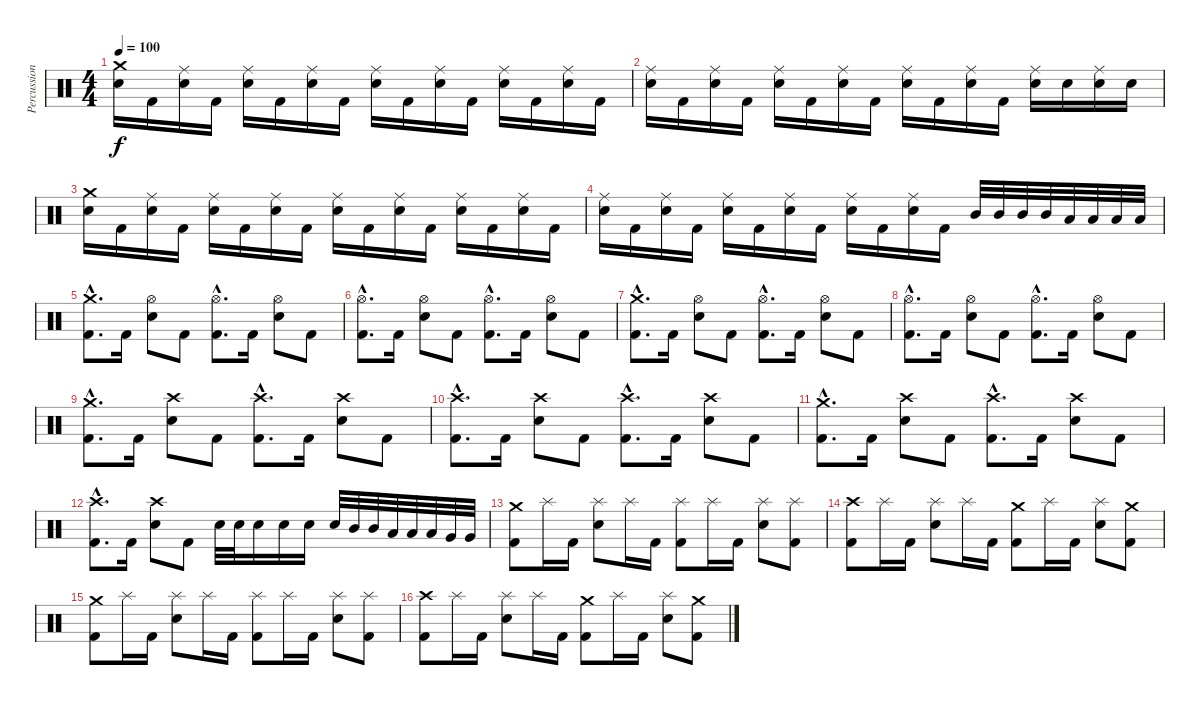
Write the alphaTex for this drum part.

\track ("Percussion" "Percussion") {instrument percussion}
\staff {score}
\articulation defaults
\ts (4 4)
\tempo 100
\clef neutral
\ks c
("Crash medium (hit)" "Electric Snare (hit)").16{dy f} "Kick (hit) 2".16 ("Ride (middle)" "Electric Snare (hit)").16 "Kick (hit) 2".16 ("Ride (middle)" "Electric Snare (hit)").16 "Kick (hit) 2".16 ("Ride (middle)" "Electric Snare (hit)").16 "Kick (hit) 2".16 ("Ride (middle)" "Electric Snare (hit)").16 "Kick (hit) 2".16 ("Ride (middle)" "Electric Snare (hit)").16 "Kick (hit) 2".16 ("Ride (middle)" "Electric Snare (hit)").16 "Kick (hit) 2".16 ("Ride (middle)" "Electric Snare (hit)").16 "Kick (hit) 2".16 |
("Ride (middle)" "Electric Snare (hit)").16 "Kick (hit) 2".16 ("Ride (middle)" "Electric Snare (hit)").16 "Kick (hit) 2".16 ("Ride (middle)" "Electric Snare (hit)").16 "Kick (hit) 2".16 ("Ride (middle)" "Electric Snare (hit)").16 "Kick (hit) 2".16 ("Ride (middle)" "Electric Snare (hit)").16 "Kick (hit) 2".16 ("Ride (middle)" "Electric Snare (hit)").16 "Kick (hit) 2".16 ("Ride (middle)" "Electric Snare (hit)").16 "Electric Snare (hit)".16 ("Ride (middle)" "Electric Snare (hit)").16 "Electric Snare (hit)".16 |
("Crash medium (hit)" "Electric Snare (hit)").16 "Kick (hit) 2".16 ("Ride (middle)" "Electric Snare (hit)").16 "Kick (hit) 2".16 ("Ride (middle)" "Electric Snare (hit)").16 "Kick (hit) 2".16 ("Ride (middle)" "Electric Snare (hit)").16 "Kick (hit) 2".16 ("Ride (middle)" "Electric Snare (hit)").16 "Kick (hit) 2".16 ("Ride (middle)" "Electric Snare (hit)").16 "Kick (hit) 2".16 ("Ride (middle)" "Electric Snare (hit)").16 "Kick (hit) 2".16 ("Ride (middle)" "Electric Snare (hit)").16 "Kick (hit) 2".16 |
("Ride (middle)" "Electric Snare (hit)").16 "Kick (hit) 2".16 ("Ride (middle)" "Electric Snare (hit)").16 "Kick (hit) 2".16 ("Ride (middle)" "Electric Snare (hit)").16 "Kick (hit) 2".16 ("Ride (middle)" "Electric Snare (hit)").16 "Kick (hit) 2".16 ("Ride (middle)" "Electric Snare (hit)").16 "Kick (hit) 2".16 ("Ride (middle)" "Electric Snare (hit)").16 "Kick (hit) 2".16 "Mid Tom (hit)".32 "Mid Tom (hit)".32 "Mid Tom (hit)".32 "Mid Tom (hit)".32 "Low Tom (hit)".32 "Low Tom (hit)".32 "Low Tom (hit)".32 "Low Tom (hit)".32 |
("Crash medium (hit)"{hac} "Kick (hit) 2"{hac}).8{d} "Kick (hit) 2".16 ("Hi-Hat (open)" "Electric Snare (hit)").8 "Kick (hit) 2".8 ("Hi-Hat (open)"{hac} "Kick (hit) 2"{hac}).8{d} "Kick (hit) 2".16 ("Hi-Hat (open)" "Electric Snare (hit)").8 "Kick (hit) 2".8 |
("Hi-Hat (open)"{hac} "Kick (hit) 2"{hac}).8{d} "Kick (hit) 2".16 ("Hi-Hat (open)" "Electric Snare (hit)").8 "Kick (hit) 2".8 ("Hi-Hat (open)"{hac} "Kick (hit) 2"{hac}).8{d} "Kick (hit) 2".16 ("Hi-Hat (open)" "Electric Snare (hit)").8 "Kick (hit) 2".8 |
("Crash medium (hit)"{hac} "Kick (hit) 2"{hac}).8{d} "Kick (hit) 2".16 ("Hi-Hat (open)" "Electric Snare (hit)").8 "Kick (hit) 2".8 ("Hi-Hat (open)"{hac} "Kick (hit) 2"{hac}).8{d} "Kick (hit) 2".16 ("Hi-Hat (open)" "Electric Snare (hit)").8 "Kick (hit) 2".8 |
("Hi-Hat (open)"{hac} "Kick (hit) 2"{hac}).8{d} "Kick (hit) 2".16 ("Hi-Hat (open)" "Electric Snare (hit)").8 "Kick (hit) 2".8 ("Hi-Hat (open)"{hac} "Kick (hit) 2"{hac}).8{d} "Kick (hit) 2".16 ("Hi-Hat (open)" "Electric Snare (hit)").8 "Kick (hit) 2".8 |
("Crash medium (hit)"{hac} "Kick (hit) 2"{hac}).8{d} "Kick (hit) 2".16 ("Crash high (hit)" "Electric Snare (hit)").8 "Kick (hit) 2".8 ("Crash high (hit)"{hac} "Kick (hit) 2"{hac}).8{d} "Kick (hit) 2".16 ("Crash high (hit)" "Electric Snare (hit)").8 "Kick (hit) 2".8 |
("Crash high (hit)"{hac} "Kick (hit) 2"{hac}).8{d} "Kick (hit) 2".16 ("Crash high (hit)" "Electric Snare (hit)").8 "Kick (hit) 2".8 ("Crash high (hit)"{hac} "Kick (hit) 2"{hac}).8{d} "Kick (hit) 2".16 ("Crash high (hit)" "Electric Snare (hit)").8 "Kick (hit) 2".8 |
("Crash medium (hit)"{hac} "Kick (hit) 2"{hac}).8{d} "Kick (hit) 2".16 ("Crash high (hit)" "Electric Snare (hit)").8 "Kick (hit) 2".8 ("Crash high (hit)"{hac} "Kick (hit) 2"{hac}).8{d} "Kick (hit) 2".16 ("Crash high (hit)" "Electric Snare (hit)").8 "Kick (hit) 2".8 |
("Crash high (hit)"{hac} "Kick (hit) 2"{hac}).8{d} "Kick (hit) 2".16 ("Crash high (hit)" "Electric Snare (hit)").8 "Kick (hit) 2".8 "Electric Snare (hit)".32 "Electric Snare (hit)".32 "Electric Snare (hit)".16 "Electric Snare (hit)".16 "Electric Snare (hit)".16 "Electric Snare (hit)".32 "Mid Tom (hit)".32 "Mid Tom (hit)".32 "Low Tom (hit)".32 "Low Tom (hit)".32 "Low Tom (hit)".32 "Very Low Tom (hit)".32 "Very Low Tom (hit)".32 |
("Crash medium (hit)" "Kick (hit) 2").8 "Splash (hit)".16 "Kick (hit) 2".16 ("Splash (hit)" "Electric Snare (hit)").8 "Splash (hit)".16 "Kick (hit) 2".16 ("Splash (hit)" "Kick (hit) 2").8 "Splash (hit)".16 "Kick (hit) 2".16 ("Splash (hit)" "Electric Snare (hit)").8 ("Splash (hit)" "Kick (hit) 2").8 |
("Crash high (hit)" "Kick (hit) 2").8 "Splash (hit)".16 "Kick (hit) 2".16 ("Splash (hit)" "Electric Snare (hit)").8 "Splash (hit)".16 "Kick (hit) 2".16 ("Crash medium (hit)" "Kick (hit) 2").8 "Splash (hit)".16 "Kick (hit) 2".16 ("Splash (hit)" "Electric Snare (hit)").8 ("Crash medium (hit)" "Kick (hit) 2").8 |
("Crash medium (hit)" "Kick (hit) 2").8 "Splash (hit)".16 "Kick (hit) 2".16 ("Splash (hit)" "Electric Snare (hit)").8 "Splash (hit)".16 "Kick (hit) 2".16 ("Splash (hit)" "Kick (hit) 2").8 "Splash (hit)".16 "Kick (hit) 2".16 ("Splash (hit)" "Electric Snare (hit)").8 ("Splash (hit)" "Kick (hit) 2").8 |
("Crash high (hit)" "Kick (hit) 2").8 "Splash (hit)".16 "Kick (hit) 2".16 ("Splash (hit)" "Electric Snare (hit)").8 "Splash (hit)".16 "Kick (hit) 2".16 ("Crash medium (hit)" "Kick (hit) 2").8 "Splash (hit)".16 "Kick (hit) 2".16 ("Splash (hit)" "Electric Snare (hit)").8 ("Crash medium (hit)" "Kick (hit) 2").8
